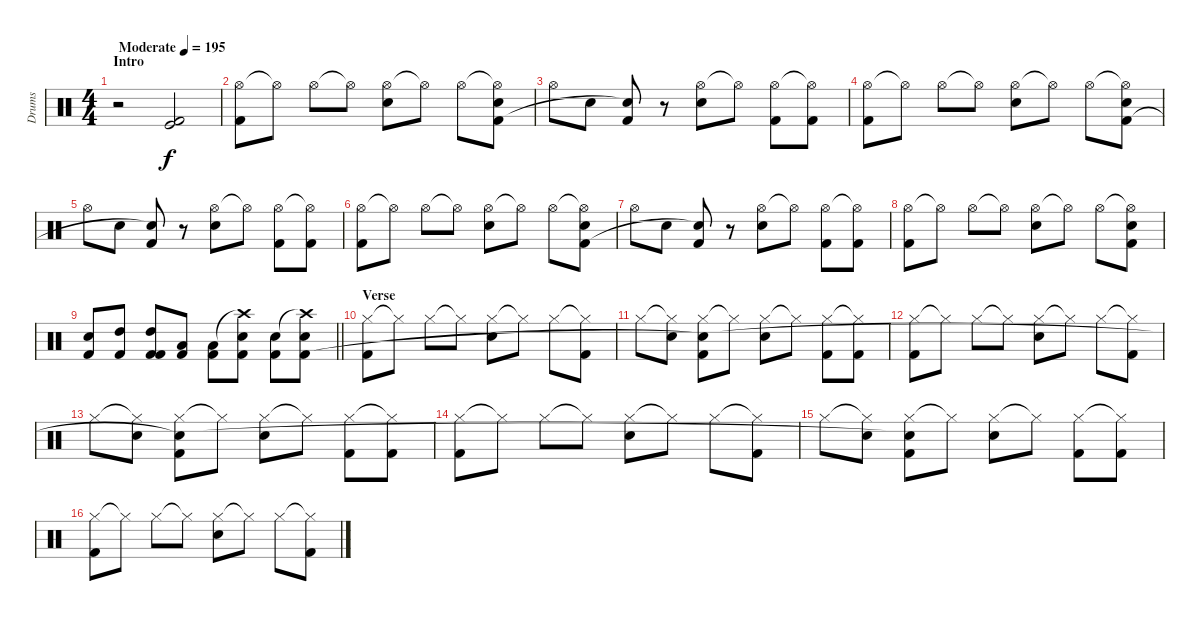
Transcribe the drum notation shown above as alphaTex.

\track ("Drums" "Drums") {instrument percussion}
\staff {score}
\articulation defaults
\ts (4 4)
\section ("" "Intro")
\tempo (195 "Moderate")
\clef neutral
\ks c
r.2{dy f} ("Kick (hit) 2" "Kick (hit)").2 |
("Hi-Hat (open)" "Kick (hit) 2").8 "Hi-Hat (open)"{t}.8 "Hi-Hat (open)".8 "Hi-Hat (open)"{t}.8 ("Hi-Hat (open)" "Snare (hit) 2").8 "Hi-Hat (open)"{t}.8 "Hi-Hat (open)".8 ("Hi-Hat (open)"{t} "Kick (hit) 2" "Snare (hit) 2").8 |
"Hi-Hat (open)".8 "Snare (hit) 2".8 ("Kick (hit) 2" "Snare (hit) 2"{t}).8 r.8 ("Hi-Hat (open)" "Snare (hit) 2").8 "Hi-Hat (open)"{t}.8 ("Hi-Hat (open)" "Kick (hit) 2").8 ("Hi-Hat (open)"{t} "Kick (hit) 2").8 |
("Hi-Hat (open)" "Kick (hit) 2").8 "Hi-Hat (open)"{t}.8 "Hi-Hat (open)".8 "Hi-Hat (open)"{t}.8 ("Hi-Hat (open)" "Snare (hit) 2").8 "Hi-Hat (open)"{t}.8 "Hi-Hat (open)".8 ("Hi-Hat (open)"{t} "Kick (hit) 2" "Snare (hit) 2").8 |
"Hi-Hat (open)".8 "Snare (hit) 2".8 ("Kick (hit) 2" "Snare (hit) 2"{t}).8 r.8 ("Hi-Hat (open)" "Snare (hit) 2").8 "Hi-Hat (open)"{t}.8 ("Hi-Hat (open)" "Kick (hit) 2").8 ("Hi-Hat (open)"{t} "Kick (hit) 2").8 |
("Hi-Hat (open)" "Kick (hit) 2").8 "Hi-Hat (open)"{t}.8 "Hi-Hat (open)".8 "Hi-Hat (open)"{t}.8 ("Hi-Hat (open)" "Snare (hit) 2").8 "Hi-Hat (open)"{t}.8 "Hi-Hat (open)".8 ("Hi-Hat (open)"{t} "Kick (hit) 2" "Snare (hit) 2").8 |
"Hi-Hat (open)".8 "Snare (hit) 2".8 ("Kick (hit) 2" "Snare (hit) 2"{t}).8 r.8 ("Hi-Hat (open)" "Snare (hit) 2").8 "Hi-Hat (open)"{t}.8 ("Hi-Hat (open)" "Kick (hit) 2").8 ("Hi-Hat (open)"{t} "Kick (hit) 2").8 |
("Hi-Hat (open)" "Kick (hit) 2").8 "Hi-Hat (open)"{t}.8 "Hi-Hat (open)".8 "Hi-Hat (open)"{t}.8 ("Hi-Hat (open)" "Snare (hit) 2").8 "Hi-Hat (open)"{t}.8 "Hi-Hat (open)".8 ("Hi-Hat (open)"{t} "Kick (hit) 2" "Snare (hit) 2").8 |
\barLineRight lightlight
("Snare (hit) 2" "Kick (hit) 2").8 ("High Tom (hit)" "Kick (hit) 2").8 ("Kick (hit) 2" "High Tom (hit)" "Kick (hit) 2").8 ("Low Tom (hit)" "Kick (hit) 2").8 ("Low Tom (hit)" "Kick (hit) 2").8 ("Crash high (hit)"{t} "Snare (hit) 2" "Kick (hit) 2").8 ("Snare (hit) 2" "Kick (hit) 2").8 ("Crash high (hit)"{t} "Snare (hit) 2" "Kick (hit) 2").8 |
\section ("" "Verse")
("Hi-Hat (closed)" "Kick (hit) 2").8 "Hi-Hat (closed)"{t}.8 "Hi-Hat (closed)".8 "Hi-Hat (closed)"{t}.8 ("Hi-Hat (closed)" "Snare (hit) 2").8 "Hi-Hat (closed)"{t}.8 "Hi-Hat (closed)".8 ("Hi-Hat (closed)"{t} "Kick (hit) 2").8 |
"Hi-Hat (closed)".8 ("Hi-Hat (closed)"{t} "Snare (hit) 2").8 ("Hi-Hat (closed)" "Kick (hit) 2" "Snare (hit) 2"{t}).8 "Hi-Hat (closed)"{t}.8 ("Hi-Hat (closed)" "Snare (hit) 2").8 "Hi-Hat (closed)"{t}.8 ("Hi-Hat (closed)" "Kick (hit) 2").8 ("Hi-Hat (closed)"{t} "Kick (hit) 2").8 |
("Hi-Hat (closed)" "Kick (hit) 2").8 "Hi-Hat (closed)"{t}.8 "Hi-Hat (closed)".8 "Hi-Hat (closed)"{t}.8 ("Hi-Hat (closed)" "Snare (hit) 2").8 "Hi-Hat (closed)"{t}.8 "Hi-Hat (closed)".8 ("Hi-Hat (closed)"{t} "Kick (hit) 2").8 |
"Hi-Hat (closed)".8 ("Hi-Hat (closed)"{t} "Snare (hit) 2").8 ("Hi-Hat (closed)" "Kick (hit) 2" "Snare (hit) 2"{t}).8 "Hi-Hat (closed)"{t}.8 ("Hi-Hat (closed)" "Snare (hit) 2").8 "Hi-Hat (closed)"{t}.8 ("Hi-Hat (closed)" "Kick (hit) 2").8 ("Hi-Hat (closed)"{t} "Kick (hit) 2").8 |
("Hi-Hat (closed)" "Kick (hit) 2").8 "Hi-Hat (closed)"{t}.8 "Hi-Hat (closed)".8 "Hi-Hat (closed)"{t}.8 ("Hi-Hat (closed)" "Snare (hit) 2").8 "Hi-Hat (closed)"{t}.8 "Hi-Hat (closed)".8 ("Hi-Hat (closed)"{t} "Kick (hit) 2").8 |
"Hi-Hat (closed)".8 ("Hi-Hat (closed)"{t} "Snare (hit) 2").8 ("Hi-Hat (closed)" "Kick (hit) 2" "Snare (hit) 2"{t}).8 "Hi-Hat (closed)"{t}.8 ("Hi-Hat (closed)" "Snare (hit) 2").8 "Hi-Hat (closed)"{t}.8 ("Hi-Hat (closed)" "Kick (hit) 2").8 ("Hi-Hat (closed)"{t} "Kick (hit) 2").8 |
("Hi-Hat (closed)" "Kick (hit) 2").8 "Hi-Hat (closed)"{t}.8 "Hi-Hat (closed)".8 "Hi-Hat (closed)"{t}.8 ("Hi-Hat (closed)" "Snare (hit) 2").8 "Hi-Hat (closed)"{t}.8 "Hi-Hat (closed)".8 ("Hi-Hat (closed)"{t} "Kick (hit) 2").8
